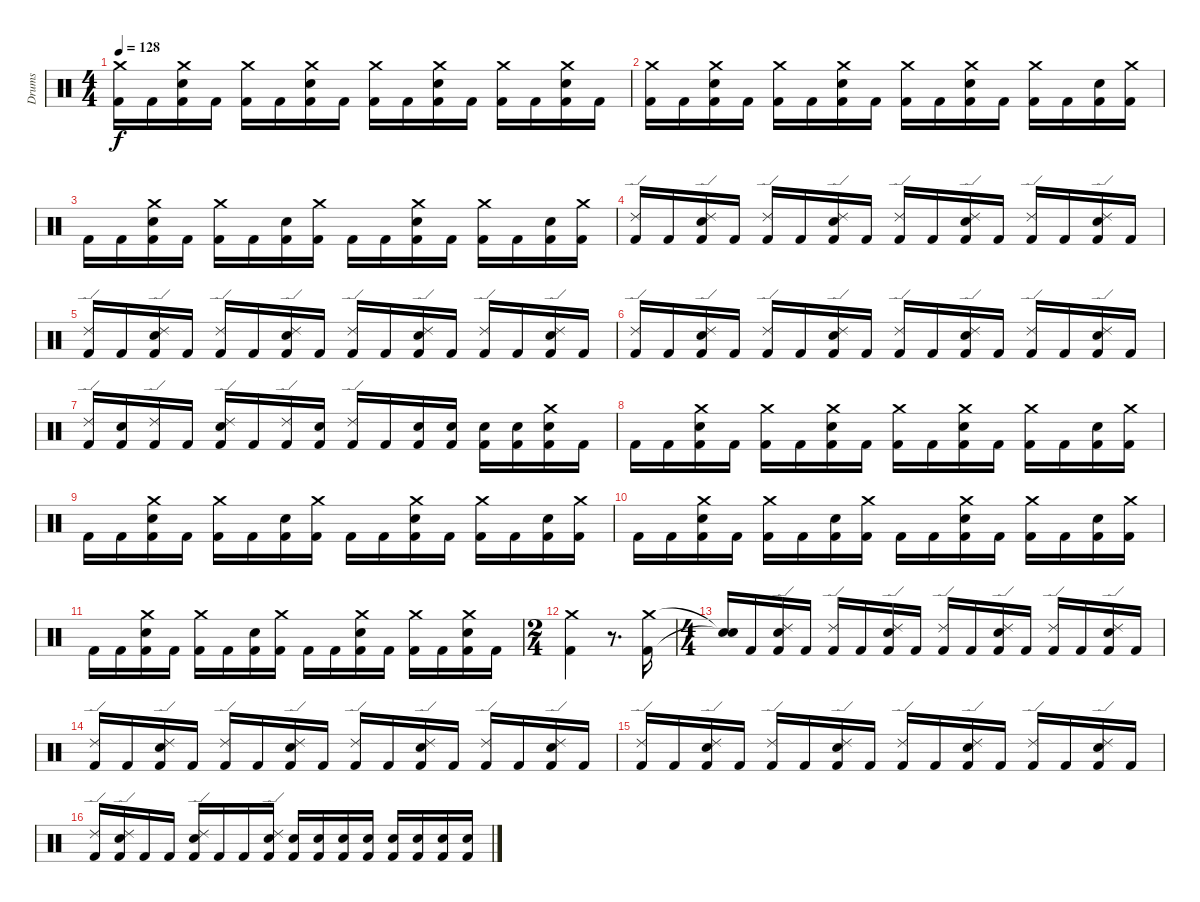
\track ("Drums" "Drums") {instrument percussion}
\staff {score}
\articulation defaults
\ts (4 4)
\tempo 128
\clef neutral
\ks c
("Crash medium (hit)" "Kick (hit) 2").16{dy f} "Kick (hit) 2".16 ("Crash medium (hit)" "Snare (hit) 2" "Kick (hit) 2").16 "Kick (hit) 2".16 ("Crash medium (hit)" "Kick (hit) 2").16 "Kick (hit) 2".16 ("Crash medium (hit)" "Snare (hit) 2" "Kick (hit) 2").16 "Kick (hit) 2".16 ("Crash medium (hit)" "Kick (hit) 2").16 "Kick (hit) 2".16 ("Crash medium (hit)" "Snare (hit) 2" "Kick (hit) 2").16 "Kick (hit) 2".16 ("Crash medium (hit)" "Kick (hit) 2").16 "Kick (hit) 2".16 ("Crash medium (hit)" "Snare (hit) 2" "Kick (hit) 2").16 "Kick (hit) 2".16 |
("Crash medium (hit)" "Kick (hit) 2").16 "Kick (hit) 2".16 ("Crash medium (hit)" "Snare (hit) 2" "Kick (hit) 2").16 "Kick (hit) 2".16 ("Crash medium (hit)" "Kick (hit) 2").16 "Kick (hit) 2".16 ("Crash medium (hit)" "Snare (hit) 2" "Kick (hit) 2").16 "Kick (hit) 2".16 ("Crash medium (hit)" "Kick (hit) 2").16 "Kick (hit) 2".16 ("Crash medium (hit)" "Snare (hit) 2" "Kick (hit) 2").16 "Kick (hit) 2".16 ("Crash medium (hit)" "Kick (hit) 2").16 "Kick (hit) 2".16 ("Snare (hit) 2" "Kick (hit) 2").16 ("Crash medium (hit)" "Kick (hit) 2").16 |
"Kick (hit) 2".16 "Kick (hit) 2".16 ("Crash medium (hit)" "Snare (hit) 2" "Kick (hit) 2").16 "Kick (hit) 2".16 ("Crash medium (hit)" "Kick (hit) 2").16 "Kick (hit) 2".16 ("Snare (hit) 2" "Kick (hit) 2").16 ("Crash medium (hit)" "Kick (hit) 2").16 "Kick (hit) 2".16 "Kick (hit) 2".16 ("Crash medium (hit)" "Snare (hit) 2" "Kick (hit) 2").16 "Kick (hit) 2".16 ("Crash medium (hit)" "Kick (hit) 2").16 "Kick (hit) 2".16 ("Snare (hit) 2" "Kick (hit) 2").16 ("Crash medium (hit)" "Kick (hit) 2").16 |
("Ride (edge) 2" "Kick (hit) 2").16 "Kick (hit) 2".16 ("Ride (edge) 2" "Snare (hit) 2" "Kick (hit) 2").16 "Kick (hit) 2".16 ("Ride (edge) 2" "Kick (hit) 2").16 "Kick (hit) 2".16 ("Ride (edge) 2" "Snare (hit) 2" "Kick (hit) 2").16 "Kick (hit) 2".16 ("Ride (edge) 2" "Kick (hit) 2").16 "Kick (hit) 2".16 ("Ride (edge) 2" "Snare (hit) 2" "Kick (hit) 2").16 "Kick (hit) 2".16 ("Ride (edge) 2" "Kick (hit) 2").16 "Kick (hit) 2".16 ("Ride (edge) 2" "Snare (hit) 2" "Kick (hit) 2").16 "Kick (hit) 2".16 |
("Ride (edge) 2" "Kick (hit) 2").16 "Kick (hit) 2".16 ("Ride (edge) 2" "Snare (hit) 2" "Kick (hit) 2").16 "Kick (hit) 2".16 ("Ride (edge) 2" "Kick (hit) 2").16 "Kick (hit) 2".16 ("Ride (edge) 2" "Snare (hit) 2" "Kick (hit) 2").16 "Kick (hit) 2".16 ("Ride (edge) 2" "Kick (hit) 2").16 "Kick (hit) 2".16 ("Ride (edge) 2" "Snare (hit) 2" "Kick (hit) 2").16 "Kick (hit) 2".16 ("Ride (edge) 2" "Kick (hit) 2").16 "Kick (hit) 2".16 ("Ride (edge) 2" "Snare (hit) 2" "Kick (hit) 2").16 "Kick (hit) 2".16 |
("Ride (edge) 2" "Kick (hit) 2").16 "Kick (hit) 2".16 ("Ride (edge) 2" "Snare (hit) 2" "Kick (hit) 2").16 "Kick (hit) 2".16 ("Ride (edge) 2" "Kick (hit) 2").16 "Kick (hit) 2".16 ("Ride (edge) 2" "Snare (hit) 2" "Kick (hit) 2").16 "Kick (hit) 2".16 ("Ride (edge) 2" "Kick (hit) 2").16 "Kick (hit) 2".16 ("Ride (edge) 2" "Snare (hit) 2" "Kick (hit) 2").16 "Kick (hit) 2".16 ("Ride (edge) 2" "Kick (hit) 2").16 "Kick (hit) 2".16 ("Ride (edge) 2" "Snare (hit) 2" "Kick (hit) 2").16 "Kick (hit) 2".16 |
("Ride (edge) 2" "Kick (hit) 2").16 ("Snare (hit) 2" "Kick (hit) 2").16 ("Ride (edge) 2" "Kick (hit) 2").16 "Kick (hit) 2".16 ("Ride (edge) 2" "Snare (hit) 2" "Kick (hit) 2").16 "Kick (hit) 2".16 ("Ride (edge) 2" "Kick (hit) 2").16 ("Snare (hit) 2" "Kick (hit) 2").16 ("Ride (edge) 2" "Kick (hit) 2").16 "Kick (hit) 2".16 ("Snare (hit) 2" "Kick (hit) 2").16 ("Snare (hit) 2" "Kick (hit) 2").16 ("Snare (hit) 2" "Kick (hit) 2").16 ("Snare (hit) 2" "Kick (hit) 2").16 ("Crash medium (hit)" "Snare (hit) 2" "Kick (hit) 2").16 "Kick (hit) 2".16 |
"Kick (hit) 2".16 "Kick (hit) 2".16 ("Crash medium (hit)" "Snare (hit) 2" "Kick (hit) 2").16 "Kick (hit) 2".16 ("Crash medium (hit)" "Kick (hit) 2").16 "Kick (hit) 2".16 ("Crash medium (hit)" "Snare (hit) 2" "Kick (hit) 2").16 "Kick (hit) 2".16 ("Crash medium (hit)" "Kick (hit) 2").16 "Kick (hit) 2".16 ("Crash medium (hit)" "Snare (hit) 2" "Kick (hit) 2").16 "Kick (hit) 2".16 ("Crash medium (hit)" "Kick (hit) 2").16 "Kick (hit) 2".16 ("Snare (hit) 2" "Kick (hit) 2").16 ("Crash medium (hit)" "Kick (hit) 2").16 |
"Kick (hit) 2".16 "Kick (hit) 2".16 ("Crash medium (hit)" "Snare (hit) 2" "Kick (hit) 2").16 "Kick (hit) 2".16 ("Crash medium (hit)" "Kick (hit) 2").16 "Kick (hit) 2".16 ("Snare (hit) 2" "Kick (hit) 2").16 ("Crash medium (hit)" "Kick (hit) 2").16 "Kick (hit) 2".16 "Kick (hit) 2".16 ("Crash medium (hit)" "Snare (hit) 2" "Kick (hit) 2").16 "Kick (hit) 2".16 ("Crash medium (hit)" "Kick (hit) 2").16 "Kick (hit) 2".16 ("Snare (hit) 2" "Kick (hit) 2").16 ("Crash medium (hit)" "Kick (hit) 2").16 |
"Kick (hit) 2".16 "Kick (hit) 2".16 ("Crash medium (hit)" "Snare (hit) 2" "Kick (hit) 2").16 "Kick (hit) 2".16 ("Crash medium (hit)" "Kick (hit) 2").16 "Kick (hit) 2".16 ("Snare (hit) 2" "Kick (hit) 2").16 ("Crash medium (hit)" "Kick (hit) 2").16 "Kick (hit) 2".16 "Kick (hit) 2".16 ("Crash medium (hit)" "Snare (hit) 2" "Kick (hit) 2").16 "Kick (hit) 2".16 ("Crash medium (hit)" "Kick (hit) 2").16 "Kick (hit) 2".16 ("Snare (hit) 2" "Kick (hit) 2").16 ("Crash medium (hit)" "Kick (hit) 2").16 |
"Kick (hit) 2".16 "Kick (hit) 2".16 ("Crash medium (hit)" "Snare (hit) 2" "Kick (hit) 2").16 "Kick (hit) 2".16 ("Crash medium (hit)" "Kick (hit) 2").16 "Kick (hit) 2".16 ("Snare (hit) 2" "Kick (hit) 2").16 ("Crash medium (hit)" "Kick (hit) 2").16 "Kick (hit) 2".16 "Kick (hit) 2".16 ("Crash medium (hit)" "Snare (hit) 2" "Kick (hit) 2").16 "Kick (hit) 2".16 ("Crash medium (hit)" "Kick (hit) 2").16 "Kick (hit) 2".16 ("Crash medium (hit)" "Snare (hit) 2" "Kick (hit) 2").16 "Kick (hit) 2".16 |
\ts (2 4)
("Crash medium (hit)" "Kick (hit) 2").4 r.8{d} ("Crash medium (hit)" "Kick (hit) 2").16 |
\ts (4 4)
("Snare (hit)"{t} "Snare (hit)"{t}).16 "Kick (hit) 2".16 ("Ride (edge) 2" "Snare (hit) 2" "Kick (hit) 2").16 "Kick (hit) 2".16 ("Ride (edge) 2" "Kick (hit) 2").16 "Kick (hit) 2".16 ("Ride (edge) 2" "Snare (hit) 2" "Kick (hit) 2").16 "Kick (hit) 2".16 ("Ride (edge) 2" "Kick (hit) 2").16 "Kick (hit) 2".16 ("Ride (edge) 2" "Snare (hit) 2" "Kick (hit) 2").16 "Kick (hit) 2".16 ("Ride (edge) 2" "Kick (hit) 2").16 "Kick (hit) 2".16 ("Ride (edge) 2" "Snare (hit) 2" "Kick (hit) 2").16 "Kick (hit) 2".16 |
("Ride (edge) 2" "Kick (hit) 2").16 "Kick (hit) 2".16 ("Ride (edge) 2" "Snare (hit) 2" "Kick (hit) 2").16 "Kick (hit) 2".16 ("Ride (edge) 2" "Kick (hit) 2").16 "Kick (hit) 2".16 ("Ride (edge) 2" "Snare (hit) 2" "Kick (hit) 2").16 "Kick (hit) 2".16 ("Ride (edge) 2" "Kick (hit) 2").16 "Kick (hit) 2".16 ("Ride (edge) 2" "Snare (hit) 2" "Kick (hit) 2").16 "Kick (hit) 2".16 ("Ride (edge) 2" "Kick (hit) 2").16 "Kick (hit) 2".16 ("Ride (edge) 2" "Snare (hit) 2" "Kick (hit) 2").16 "Kick (hit) 2".16 |
("Ride (edge) 2" "Kick (hit) 2").16 "Kick (hit) 2".16 ("Ride (edge) 2" "Snare (hit) 2" "Kick (hit) 2").16 "Kick (hit) 2".16 ("Ride (edge) 2" "Kick (hit) 2").16 "Kick (hit) 2".16 ("Ride (edge) 2" "Snare (hit) 2" "Kick (hit) 2").16 "Kick (hit) 2".16 ("Ride (edge) 2" "Kick (hit) 2").16 "Kick (hit) 2".16 ("Ride (edge) 2" "Snare (hit) 2" "Kick (hit) 2").16 "Kick (hit) 2".16 ("Ride (edge) 2" "Kick (hit) 2").16 "Kick (hit) 2".16 ("Ride (edge) 2" "Snare (hit) 2" "Kick (hit) 2").16 "Kick (hit) 2".16 |
("Ride (edge) 2" "Kick (hit) 2").16 ("Ride (edge) 2" "Snare (hit) 2" "Kick (hit) 2").16 "Kick (hit) 2".16 "Kick (hit) 2".16 ("Ride (edge) 2" "Snare (hit) 2" "Kick (hit) 2").16 "Kick (hit) 2".16 "Kick (hit) 2".16 ("Ride (edge) 2" "Snare (hit) 2" "Kick (hit) 2").16 ("Snare (hit) 2" "Kick (hit) 2").16 ("Snare (hit) 2" "Kick (hit) 2").16 ("Snare (hit) 2" "Kick (hit) 2").16 ("Snare (hit) 2" "Kick (hit) 2").16 ("Snare (hit) 2" "Kick (hit) 2").16 ("Snare (hit) 2" "Kick (hit) 2").16 ("Snare (hit) 2" "Kick (hit) 2").16 ("Snare (hit) 2" "Kick (hit) 2").16
